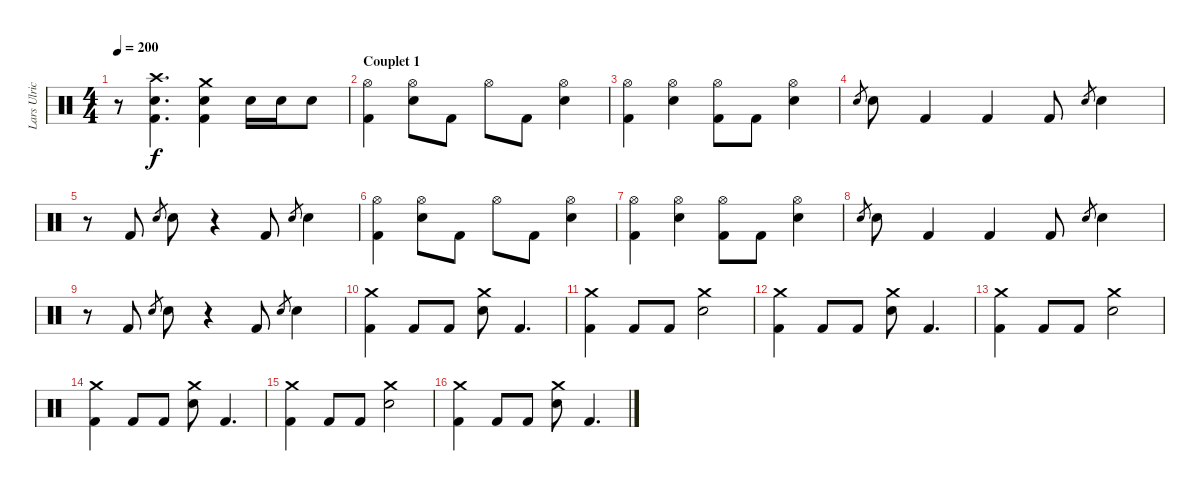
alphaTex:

\track ("Lars Ulrich" "Lars Ulric") {instrument percussion}
\staff {score}
\articulation defaults
\ts (4 4)
\tempo 200
\clef neutral
\ks c
r.8{dy f} ("Crash high (hit)" "Electric Snare (hit)" "Kick (hit) 2").4{d} ("Crash medium (hit)" "Electric Snare (hit)" "Kick (hit) 2").4 "Electric Snare (hit)".16 "Electric Snare (hit)".16 "Electric Snare (hit)".8 |
\section ("" "Couplet 1")
("Hi-Hat (open)" "Kick (hit) 2").4 ("Hi-Hat (open)" "Electric Snare (hit)").8 "Kick (hit) 2".8 "Hi-Hat (open)".8 "Kick (hit) 2".8 ("Hi-Hat (open)" "Electric Snare (hit)").4 |
("Hi-Hat (open)" "Kick (hit) 2").4 ("Hi-Hat (open)" "Electric Snare (hit)").4 ("Hi-Hat (open)" "Kick (hit) 2").8 "Kick (hit) 2".8 ("Hi-Hat (open)" "Electric Snare (hit)").4 |
"Electric Snare (hit)".8{gr} "Electric Snare (hit)".8 "Kick (hit) 2".4 "Kick (hit) 2".4 "Kick (hit) 2".8 "Electric Snare (hit)".8{gr} "Electric Snare (hit)".4 |
r.8 "Kick (hit) 2".8 "Electric Snare (hit)".8{gr} "Electric Snare (hit)".8 r.4 "Kick (hit) 2".8 "Electric Snare (hit)".8{gr} "Electric Snare (hit)".4 |
("Hi-Hat (open)" "Kick (hit) 2").4 ("Hi-Hat (open)" "Electric Snare (hit)").8 "Kick (hit) 2".8 "Hi-Hat (open)".8 "Kick (hit) 2".8 ("Hi-Hat (open)" "Electric Snare (hit)").4 |
("Hi-Hat (open)" "Kick (hit) 2").4 ("Hi-Hat (open)" "Electric Snare (hit)").4 ("Hi-Hat (open)" "Kick (hit) 2").8 "Kick (hit) 2".8 ("Hi-Hat (open)" "Electric Snare (hit)").4 |
"Electric Snare (hit)".8{gr} "Electric Snare (hit)".8 "Kick (hit) 2".4 "Kick (hit) 2".4 "Kick (hit) 2".8 "Electric Snare (hit)".8{gr} "Electric Snare (hit)".4 |
r.8 "Kick (hit) 2".8 "Electric Snare (hit)".8{gr} "Electric Snare (hit)".8 r.4 "Kick (hit) 2".8 "Electric Snare (hit)".8{gr} "Electric Snare (hit)".4 |
("Crash medium (hit)" "Kick (hit) 2").4 "Kick (hit) 2".8 "Kick (hit) 2".8 ("Crash medium (hit)" "Electric Snare (hit)").8 "Kick (hit) 2".4{d} |
("Crash medium (hit)" "Kick (hit) 2").4 "Kick (hit) 2".8 "Kick (hit) 2".8 ("Crash medium (hit)" "Electric Snare (hit)").2 |
("Crash medium (hit)" "Kick (hit) 2").4 "Kick (hit) 2".8 "Kick (hit) 2".8 ("Crash medium (hit)" "Electric Snare (hit)").8 "Kick (hit) 2".4{d} |
("Crash medium (hit)" "Kick (hit) 2").4 "Kick (hit) 2".8 "Kick (hit) 2".8 ("Crash medium (hit)" "Electric Snare (hit)").2 |
("Crash medium (hit)" "Kick (hit) 2").4 "Kick (hit) 2".8 "Kick (hit) 2".8 ("Crash medium (hit)" "Electric Snare (hit)").8 "Kick (hit) 2".4{d} |
("Crash medium (hit)" "Kick (hit) 2").4 "Kick (hit) 2".8 "Kick (hit) 2".8 ("Crash medium (hit)" "Electric Snare (hit)").2 |
("Crash medium (hit)" "Kick (hit) 2").4 "Kick (hit) 2".8 "Kick (hit) 2".8 ("Crash medium (hit)" "Electric Snare (hit)").8 "Kick (hit) 2".4{d}
